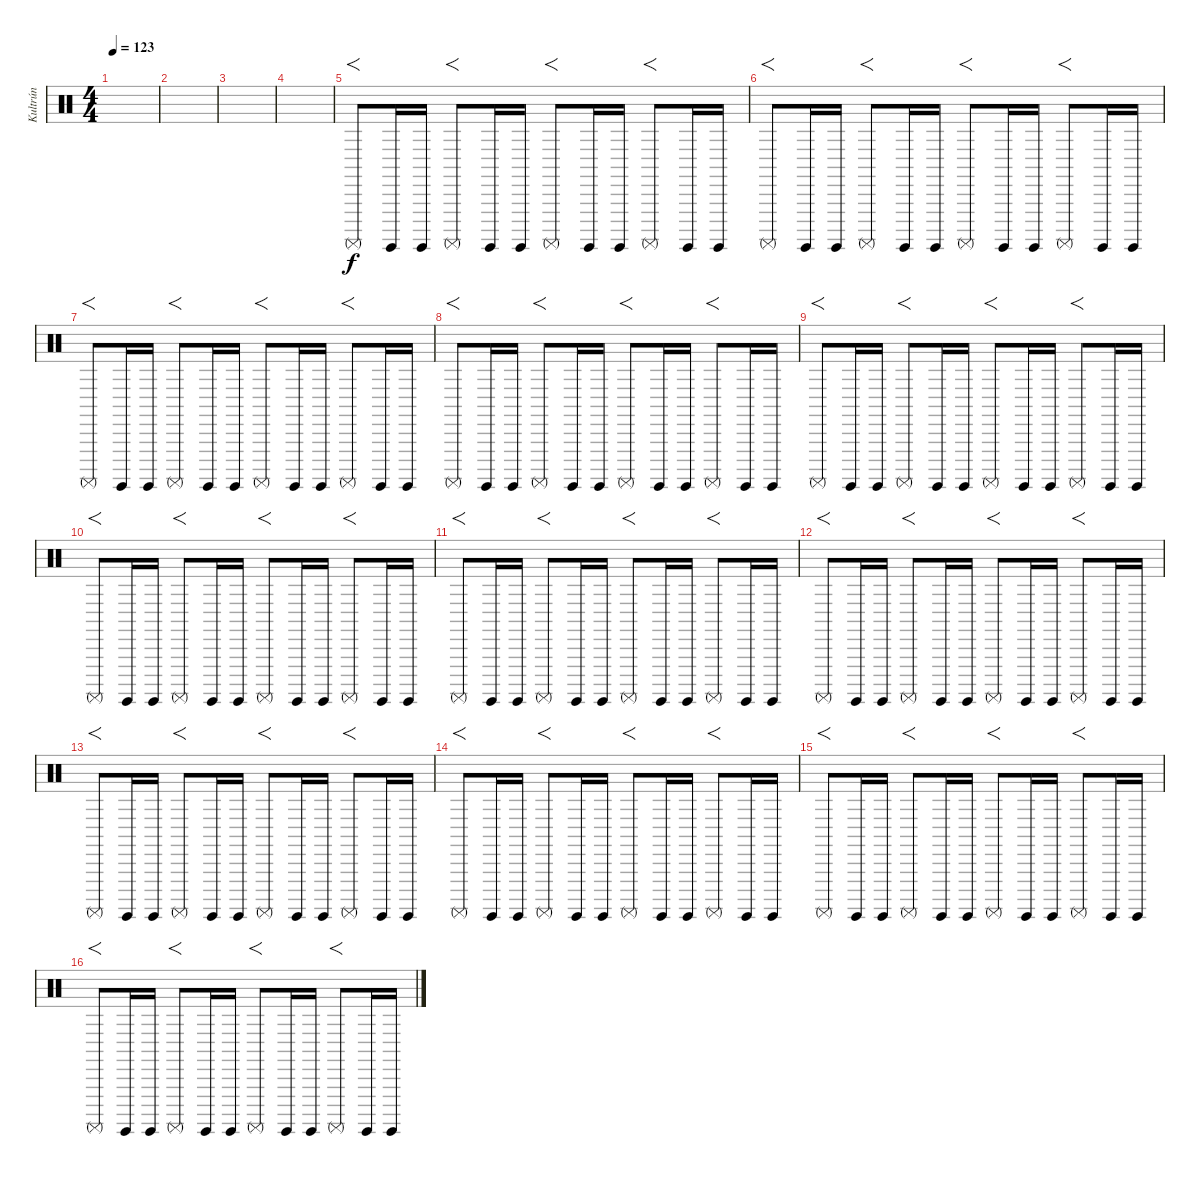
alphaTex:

\track ("Kultrún" "Kultrún") {instrument percussion}
\staff {score}
\articulation defaults
\ts (4 4)
\tempo 123
\clef neutral
\ks c
|
|
|
|
"Surdo (mute)".8{f} "Surdo (hit)".16 "Surdo (hit)".16 "Surdo (mute)".8{f} "Surdo (hit)".16 "Surdo (hit)".16 "Surdo (mute)".8{f} "Surdo (hit)".16 "Surdo (hit)".16 "Surdo (mute)".8{f} "Surdo (hit)".16 "Surdo (hit)".16 |
"Surdo (mute)".8{f} "Surdo (hit)".16 "Surdo (hit)".16 "Surdo (mute)".8{f} "Surdo (hit)".16 "Surdo (hit)".16 "Surdo (mute)".8{f} "Surdo (hit)".16 "Surdo (hit)".16 "Surdo (mute)".8{f} "Surdo (hit)".16 "Surdo (hit)".16 |
"Surdo (mute)".8{f} "Surdo (hit)".16 "Surdo (hit)".16 "Surdo (mute)".8{f} "Surdo (hit)".16 "Surdo (hit)".16 "Surdo (mute)".8{f} "Surdo (hit)".16 "Surdo (hit)".16 "Surdo (mute)".8{f} "Surdo (hit)".16 "Surdo (hit)".16 |
"Surdo (mute)".8{f} "Surdo (hit)".16 "Surdo (hit)".16 "Surdo (mute)".8{f} "Surdo (hit)".16 "Surdo (hit)".16 "Surdo (mute)".8{f} "Surdo (hit)".16 "Surdo (hit)".16 "Surdo (mute)".8{f} "Surdo (hit)".16 "Surdo (hit)".16 |
"Surdo (mute)".8{f} "Surdo (hit)".16 "Surdo (hit)".16 "Surdo (mute)".8{f} "Surdo (hit)".16 "Surdo (hit)".16 "Surdo (mute)".8{f} "Surdo (hit)".16 "Surdo (hit)".16 "Surdo (mute)".8{f} "Surdo (hit)".16 "Surdo (hit)".16 |
"Surdo (mute)".8{f} "Surdo (hit)".16 "Surdo (hit)".16 "Surdo (mute)".8{f} "Surdo (hit)".16 "Surdo (hit)".16 "Surdo (mute)".8{f} "Surdo (hit)".16 "Surdo (hit)".16 "Surdo (mute)".8{f} "Surdo (hit)".16 "Surdo (hit)".16 |
"Surdo (mute)".8{f} "Surdo (hit)".16 "Surdo (hit)".16 "Surdo (mute)".8{f} "Surdo (hit)".16 "Surdo (hit)".16 "Surdo (mute)".8{f} "Surdo (hit)".16 "Surdo (hit)".16 "Surdo (mute)".8{f} "Surdo (hit)".16 "Surdo (hit)".16 |
"Surdo (mute)".8{f} "Surdo (hit)".16 "Surdo (hit)".16 "Surdo (mute)".8{f} "Surdo (hit)".16 "Surdo (hit)".16 "Surdo (mute)".8{f} "Surdo (hit)".16 "Surdo (hit)".16 "Surdo (mute)".8{f} "Surdo (hit)".16 "Surdo (hit)".16 |
"Surdo (mute)".8{f} "Surdo (hit)".16 "Surdo (hit)".16 "Surdo (mute)".8{f} "Surdo (hit)".16 "Surdo (hit)".16 "Surdo (mute)".8{f} "Surdo (hit)".16 "Surdo (hit)".16 "Surdo (mute)".8{f} "Surdo (hit)".16 "Surdo (hit)".16 |
"Surdo (mute)".8{f} "Surdo (hit)".16 "Surdo (hit)".16 "Surdo (mute)".8{f} "Surdo (hit)".16 "Surdo (hit)".16 "Surdo (mute)".8{f} "Surdo (hit)".16 "Surdo (hit)".16 "Surdo (mute)".8{f} "Surdo (hit)".16 "Surdo (hit)".16 |
"Surdo (mute)".8{f} "Surdo (hit)".16 "Surdo (hit)".16 "Surdo (mute)".8{f} "Surdo (hit)".16 "Surdo (hit)".16 "Surdo (mute)".8{f} "Surdo (hit)".16 "Surdo (hit)".16 "Surdo (mute)".8{f} "Surdo (hit)".16 "Surdo (hit)".16 |
"Surdo (mute)".8{f} "Surdo (hit)".16 "Surdo (hit)".16 "Surdo (mute)".8{f} "Surdo (hit)".16 "Surdo (hit)".16 "Surdo (mute)".8{f} "Surdo (hit)".16 "Surdo (hit)".16 "Surdo (mute)".8{f} "Surdo (hit)".16 "Surdo (hit)".16
